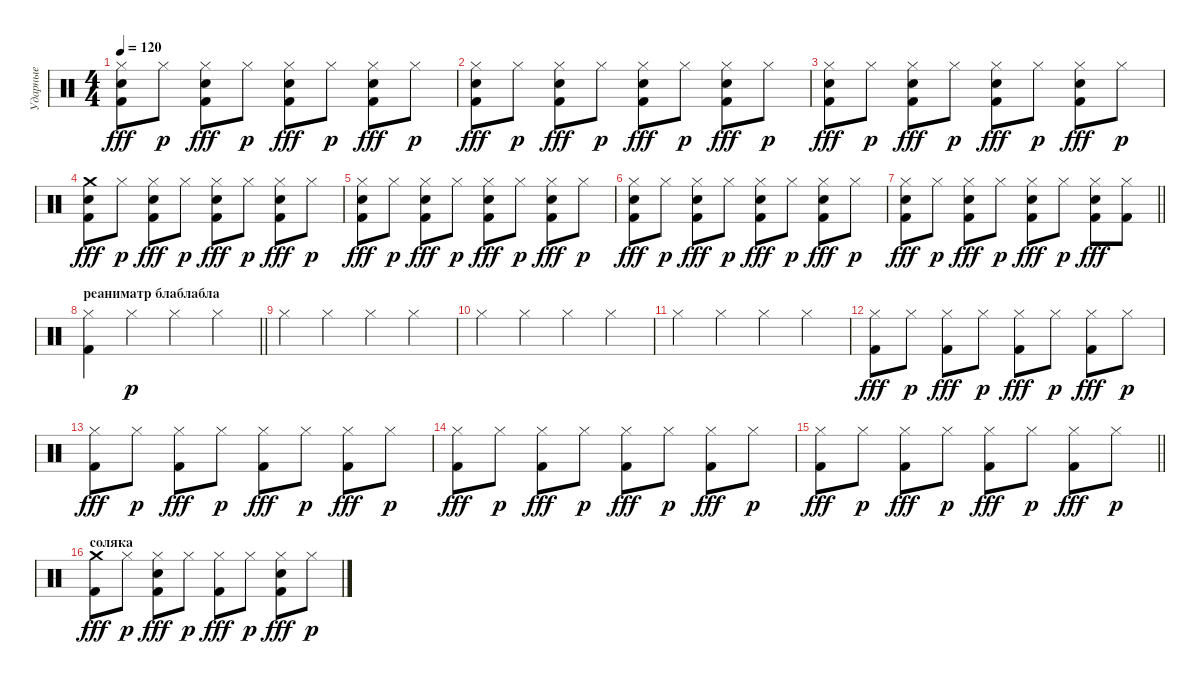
\track ("Ударные" "Ударные") {instrument percussion}
\staff {score}
\articulation defaults
\ts (4 4)
\tempo 120
\clef neutral
\ks c
("Hi-Hat (closed)" "Snare (hit) 2" "Kick (hit) 2").8{dy fff} "Hi-Hat (closed)".8{dy p} ("Hi-Hat (closed)" "Snare (hit) 2" "Kick (hit) 2").8{dy fff} "Hi-Hat (closed)".8{dy p} ("Hi-Hat (closed)" "Snare (hit) 2" "Kick (hit) 2").8{dy fff} "Hi-Hat (closed)".8{dy p} ("Hi-Hat (closed)" "Snare (hit) 2" "Kick (hit) 2").8{dy fff} "Hi-Hat (closed)".8{dy p} |
("Hi-Hat (closed)" "Snare (hit) 2" "Kick (hit) 2").8{dy fff} "Hi-Hat (closed)".8{dy p} ("Hi-Hat (closed)" "Snare (hit) 2" "Kick (hit) 2").8{dy fff} "Hi-Hat (closed)".8{dy p} ("Hi-Hat (closed)" "Snare (hit) 2" "Kick (hit) 2").8{dy fff} "Hi-Hat (closed)".8{dy p} ("Hi-Hat (closed)" "Snare (hit) 2" "Kick (hit) 2").8{dy fff} "Hi-Hat (closed)".8{dy p} |
("Hi-Hat (closed)" "Snare (hit) 2" "Kick (hit) 2").8{dy fff} "Hi-Hat (closed)".8{dy p} ("Hi-Hat (closed)" "Snare (hit) 2" "Kick (hit) 2").8{dy fff} "Hi-Hat (closed)".8{dy p} ("Hi-Hat (closed)" "Snare (hit) 2" "Kick (hit) 2").8{dy fff} "Hi-Hat (closed)".8{dy p} ("Hi-Hat (closed)" "Snare (hit) 2" "Kick (hit) 2").8{dy fff} "Hi-Hat (closed)".8{dy p} |
("Crash medium (hit)" "Snare (hit) 2" "Kick (hit) 2").8{dy fff} "Hi-Hat (closed)".8{dy p} ("Hi-Hat (closed)" "Snare (hit) 2" "Kick (hit) 2").8{dy fff} "Hi-Hat (closed)".8{dy p} ("Hi-Hat (closed)" "Snare (hit) 2" "Kick (hit) 2").8{dy fff} "Hi-Hat (closed)".8{dy p} ("Hi-Hat (closed)" "Snare (hit) 2" "Kick (hit) 2").8{dy fff} "Hi-Hat (closed)".8{dy p} |
("Hi-Hat (closed)" "Snare (hit) 2" "Kick (hit) 2").8{dy fff} "Hi-Hat (closed)".8{dy p} ("Hi-Hat (closed)" "Snare (hit) 2" "Kick (hit) 2").8{dy fff} "Hi-Hat (closed)".8{dy p} ("Hi-Hat (closed)" "Snare (hit) 2" "Kick (hit) 2").8{dy fff} "Hi-Hat (closed)".8{dy p} ("Hi-Hat (closed)" "Snare (hit) 2" "Kick (hit) 2").8{dy fff} "Hi-Hat (closed)".8{dy p} |
("Hi-Hat (closed)" "Snare (hit) 2" "Kick (hit) 2").8{dy fff} "Hi-Hat (closed)".8{dy p} ("Hi-Hat (closed)" "Snare (hit) 2" "Kick (hit) 2").8{dy fff} "Hi-Hat (closed)".8{dy p} ("Hi-Hat (closed)" "Snare (hit) 2" "Kick (hit) 2").8{dy fff} "Hi-Hat (closed)".8{dy p} ("Hi-Hat (closed)" "Snare (hit) 2" "Kick (hit) 2").8{dy fff} "Hi-Hat (closed)".8{dy p} |
\barLineRight lightlight
("Hi-Hat (closed)" "Snare (hit) 2" "Kick (hit) 2").8{dy fff} "Hi-Hat (closed)".8{dy p} ("Hi-Hat (closed)" "Snare (hit) 2" "Kick (hit) 2").8{dy fff} "Hi-Hat (closed)".8{dy p} ("Hi-Hat (closed)" "Snare (hit) 2" "Kick (hit) 2").8{dy fff} "Hi-Hat (closed)".8{dy p} ("Hi-Hat (closed)" "Snare (hit) 2" "Kick (hit) 2").8{dy fff} ("Hi-Hat (closed)" "Kick (hit) 2").8 |
\section ("" "реаниматр блаблабла")
\barLineRight lightlight
("Hi-Hat (closed)" "Kick (hit) 2").4 "Hi-Hat (closed)".4{dy p} "Hi-Hat (closed)".4 "Hi-Hat (closed)".4 |
"Hi-Hat (closed)".4 "Hi-Hat (closed)".4 "Hi-Hat (closed)".4 "Hi-Hat (closed)".4 |
"Hi-Hat (closed)".4 "Hi-Hat (closed)".4 "Hi-Hat (closed)".4 "Hi-Hat (closed)".4 |
"Hi-Hat (closed)".4 "Hi-Hat (closed)".4 "Hi-Hat (closed)".4 "Hi-Hat (closed)".4 |
("Hi-Hat (closed)" "Kick (hit) 2").8{dy fff} "Hi-Hat (closed)".8{dy p} ("Hi-Hat (closed)" "Kick (hit) 2").8{dy fff} "Hi-Hat (closed)".8{dy p} ("Hi-Hat (closed)" "Kick (hit) 2").8{dy fff} "Hi-Hat (closed)".8{dy p} ("Hi-Hat (closed)" "Kick (hit) 2").8{dy fff} "Hi-Hat (closed)".8{dy p} |
("Hi-Hat (closed)" "Kick (hit) 2").8{dy fff} "Hi-Hat (closed)".8{dy p} ("Hi-Hat (closed)" "Kick (hit) 2").8{dy fff} "Hi-Hat (closed)".8{dy p} ("Hi-Hat (closed)" "Kick (hit) 2").8{dy fff} "Hi-Hat (closed)".8{dy p} ("Hi-Hat (closed)" "Kick (hit) 2").8{dy fff} "Hi-Hat (closed)".8{dy p} |
("Hi-Hat (closed)" "Kick (hit) 2").8{dy fff} "Hi-Hat (closed)".8{dy p} ("Hi-Hat (closed)" "Kick (hit) 2").8{dy fff} "Hi-Hat (closed)".8{dy p} ("Hi-Hat (closed)" "Kick (hit) 2").8{dy fff} "Hi-Hat (closed)".8{dy p} ("Hi-Hat (closed)" "Kick (hit) 2").8{dy fff} "Hi-Hat (closed)".8{dy p} |
\barLineRight lightlight
("Hi-Hat (closed)" "Kick (hit) 2").8{dy fff} "Hi-Hat (closed)".8{dy p} ("Hi-Hat (closed)" "Kick (hit) 2").8{dy fff} "Hi-Hat (closed)".8{dy p} ("Hi-Hat (closed)" "Kick (hit) 2").8{dy fff} "Hi-Hat (closed)".8{dy p} ("Hi-Hat (closed)" "Kick (hit) 2").8{dy fff} "Hi-Hat (closed)".8{dy p} |
\section ("" "соляка")
("Crash medium (hit)" "Kick (hit) 2").8{dy fff} "Hi-Hat (closed)".8{dy p} ("Hi-Hat (closed)" "Snare (hit) 2" "Kick (hit) 2").8{dy fff} "Hi-Hat (closed)".8{dy p} ("Hi-Hat (closed)" "Kick (hit) 2").8{dy fff} "Hi-Hat (closed)".8{dy p} ("Hi-Hat (closed)" "Snare (hit) 2" "Kick (hit) 2").8{dy fff} "Hi-Hat (closed)".8{dy p}
